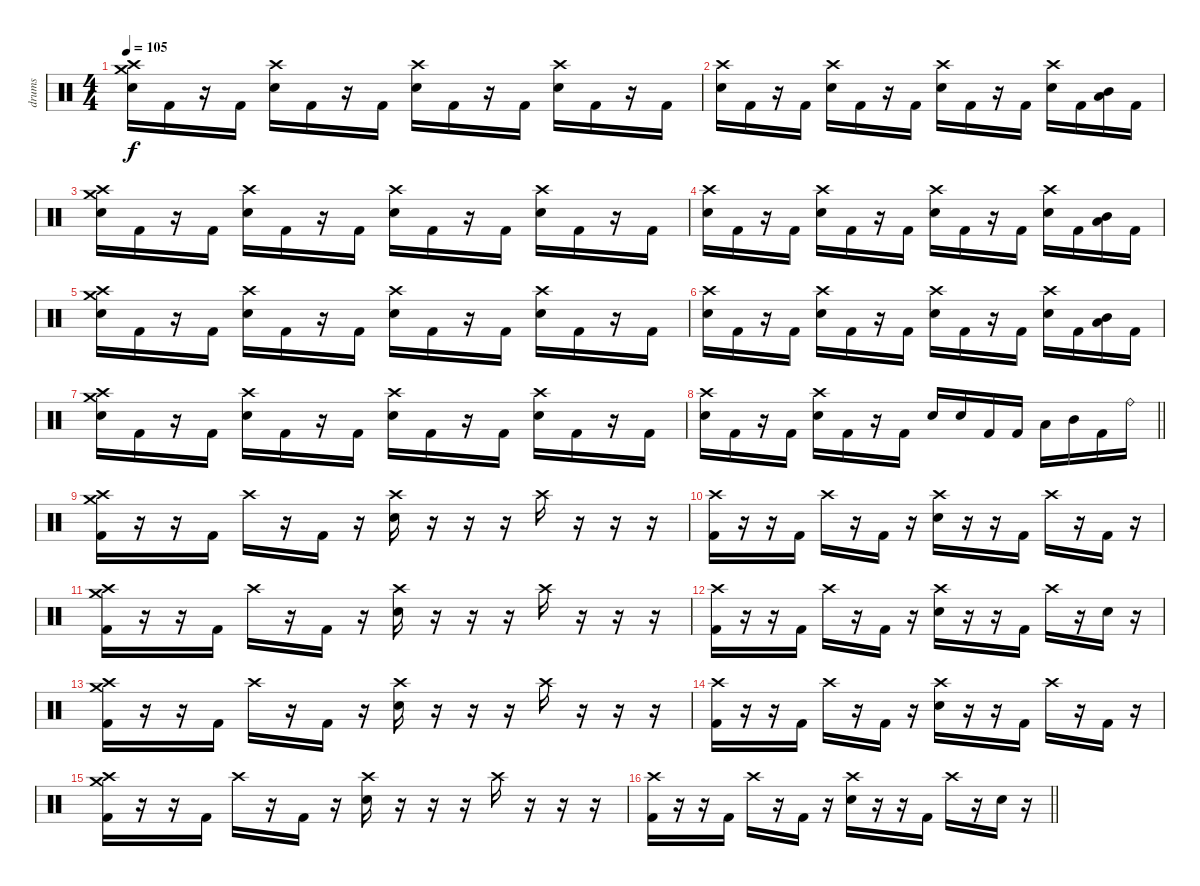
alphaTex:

\track ("drums" "drums") {instrument percussion}
\staff {score}
\articulation defaults
\ts (4 4)
\section ("" "")
\tempo 105
\clef neutral
\ks c
("Crash medium (hit)" "Crash high (hit)" "Electric Snare (hit)").16{dy f} "Kick (hit) 2".16 r.16 "Kick (hit) 2".16 ("Crash high (hit)" "Electric Snare (hit)").16 "Kick (hit) 2".16 r.16 "Kick (hit) 2".16 ("Crash high (hit)" "Electric Snare (hit)").16 "Kick (hit) 2".16 r.16 "Kick (hit) 2".16 ("Crash high (hit)" "Electric Snare (hit)").16 "Kick (hit) 2".16 r.16 "Kick (hit) 2".16 |
("Crash high (hit)" "Electric Snare (hit)").16 "Kick (hit) 2".16 r.16 "Kick (hit) 2".16 ("Crash high (hit)" "Electric Snare (hit)").16 "Kick (hit) 2".16 r.16 "Kick (hit) 2".16 ("Crash high (hit)" "Electric Snare (hit)").16 "Kick (hit) 2".16 r.16 "Kick (hit) 2".16 ("Crash high (hit)" "Electric Snare (hit)").16 "Kick (hit) 2".16 ("Low Tom (hit)" "Mid Tom (hit)").16 "Kick (hit) 2".16 |
("Crash medium (hit)" "Crash high (hit)" "Electric Snare (hit)").16 "Kick (hit) 2".16 r.16 "Kick (hit) 2".16 ("Crash high (hit)" "Electric Snare (hit)").16 "Kick (hit) 2".16 r.16 "Kick (hit) 2".16 ("Crash high (hit)" "Electric Snare (hit)").16 "Kick (hit) 2".16 r.16 "Kick (hit) 2".16 ("Crash high (hit)" "Electric Snare (hit)").16 "Kick (hit) 2".16 r.16 "Kick (hit) 2".16 |
("Crash high (hit)" "Electric Snare (hit)").16 "Kick (hit) 2".16 r.16 "Kick (hit) 2".16 ("Crash high (hit)" "Electric Snare (hit)").16 "Kick (hit) 2".16 r.16 "Kick (hit) 2".16 ("Crash high (hit)" "Electric Snare (hit)").16 "Kick (hit) 2".16 r.16 "Kick (hit) 2".16 ("Crash high (hit)" "Electric Snare (hit)").16 "Kick (hit) 2".16 ("Low Tom (hit)" "Mid Tom (hit)").16 "Kick (hit) 2".16 |
("Crash medium (hit)" "Crash high (hit)" "Electric Snare (hit)").16 "Kick (hit) 2".16 r.16 "Kick (hit) 2".16 ("Crash high (hit)" "Electric Snare (hit)").16 "Kick (hit) 2".16 r.16 "Kick (hit) 2".16 ("Crash high (hit)" "Electric Snare (hit)").16 "Kick (hit) 2".16 r.16 "Kick (hit) 2".16 ("Crash high (hit)" "Electric Snare (hit)").16 "Kick (hit) 2".16 r.16 "Kick (hit) 2".16 |
("Crash high (hit)" "Electric Snare (hit)").16 "Kick (hit) 2".16 r.16 "Kick (hit) 2".16 ("Crash high (hit)" "Electric Snare (hit)").16 "Kick (hit) 2".16 r.16 "Kick (hit) 2".16 ("Crash high (hit)" "Electric Snare (hit)").16 "Kick (hit) 2".16 r.16 "Kick (hit) 2".16 ("Crash high (hit)" "Electric Snare (hit)").16 "Kick (hit) 2".16 ("Low Tom (hit)" "Mid Tom (hit)").16 "Kick (hit) 2".16 |
("Crash medium (hit)" "Crash high (hit)" "Electric Snare (hit)").16 "Kick (hit) 2".16 r.16 "Kick (hit) 2".16 ("Crash high (hit)" "Electric Snare (hit)").16 "Kick (hit) 2".16 r.16 "Kick (hit) 2".16 ("Crash high (hit)" "Electric Snare (hit)").16 "Kick (hit) 2".16 r.16 "Kick (hit) 2".16 ("Crash high (hit)" "Electric Snare (hit)").16 "Kick (hit) 2".16 r.16 "Kick (hit) 2".16 |
\barLineRight lightlight
("Crash high (hit)" "Electric Snare (hit)").16 "Kick (hit) 2".16 r.16 "Kick (hit) 2".16 ("Crash high (hit)" "Electric Snare (hit)").16 "Kick (hit) 2".16 r.16 "Kick (hit) 2".16 "Electric Snare (hit)".16 "Electric Snare (hit)".16 "Kick (hit) 2".16 "Kick (hit) 2".16 "Low Tom (hit)".16 "Mid Tom (hit)".16 "Kick (hit) 2".16 "Ride (bell)".16 |
\section ("" "")
("Crash medium (hit)" "Crash high (hit)" "Kick (hit) 2").16 r.16 r.16 "Kick (hit) 2".16 "Crash high (hit)".16 r.16 "Kick (hit) 2".16 r.16 ("Crash high (hit)" "Electric Snare (hit)").16 r.16 r.16 r.16 "Crash high (hit)".16 r.16 r.16 r.16 |
("Crash high (hit)" "Kick (hit) 2").16 r.16 r.16 "Kick (hit) 2".16 "Crash high (hit)".16 r.16 "Kick (hit) 2".16 r.16 ("Crash high (hit)" "Electric Snare (hit)").16 r.16 r.16 "Kick (hit) 2".16 "Crash high (hit)".16 r.16 "Kick (hit) 2".16 r.16 |
("Crash medium (hit)" "Crash high (hit)" "Kick (hit) 2").16 r.16 r.16 "Kick (hit) 2".16 "Crash high (hit)".16 r.16 "Kick (hit) 2".16 r.16 ("Crash high (hit)" "Electric Snare (hit)").16 r.16 r.16 r.16 "Crash high (hit)".16 r.16 r.16 r.16 |
("Crash high (hit)" "Kick (hit) 2").16 r.16 r.16 "Kick (hit) 2".16 "Crash high (hit)".16 r.16 "Kick (hit) 2".16 r.16 ("Crash high (hit)" "Electric Snare (hit)").16 r.16 r.16 "Kick (hit) 2".16 "Crash high (hit)".16 r.16 "Electric Snare (hit)".16 r.16 |
("Crash medium (hit)" "Crash high (hit)" "Kick (hit) 2").16 r.16 r.16 "Kick (hit) 2".16 "Crash high (hit)".16 r.16 "Kick (hit) 2".16 r.16 ("Crash high (hit)" "Electric Snare (hit)").16 r.16 r.16 r.16 "Crash high (hit)".16 r.16 r.16 r.16 |
("Crash high (hit)" "Kick (hit) 2").16 r.16 r.16 "Kick (hit) 2".16 "Crash high (hit)".16 r.16 "Kick (hit) 2".16 r.16 ("Crash high (hit)" "Electric Snare (hit)").16 r.16 r.16 "Kick (hit) 2".16 "Crash high (hit)".16 r.16 "Kick (hit) 2".16 r.16 |
("Crash medium (hit)" "Crash high (hit)" "Kick (hit) 2").16 r.16 r.16 "Kick (hit) 2".16 "Crash high (hit)".16 r.16 "Kick (hit) 2".16 r.16 ("Crash high (hit)" "Electric Snare (hit)").16 r.16 r.16 r.16 "Crash high (hit)".16 r.16 r.16 r.16 |
\barLineRight lightlight
("Crash high (hit)" "Kick (hit) 2").16 r.16 r.16 "Kick (hit) 2".16 "Crash high (hit)".16 r.16 "Kick (hit) 2".16 r.16 ("Crash high (hit)" "Electric Snare (hit)").16 r.16 r.16 "Kick (hit) 2".16 "Crash high (hit)".16 r.16 "Electric Snare (hit)".16 r.16
